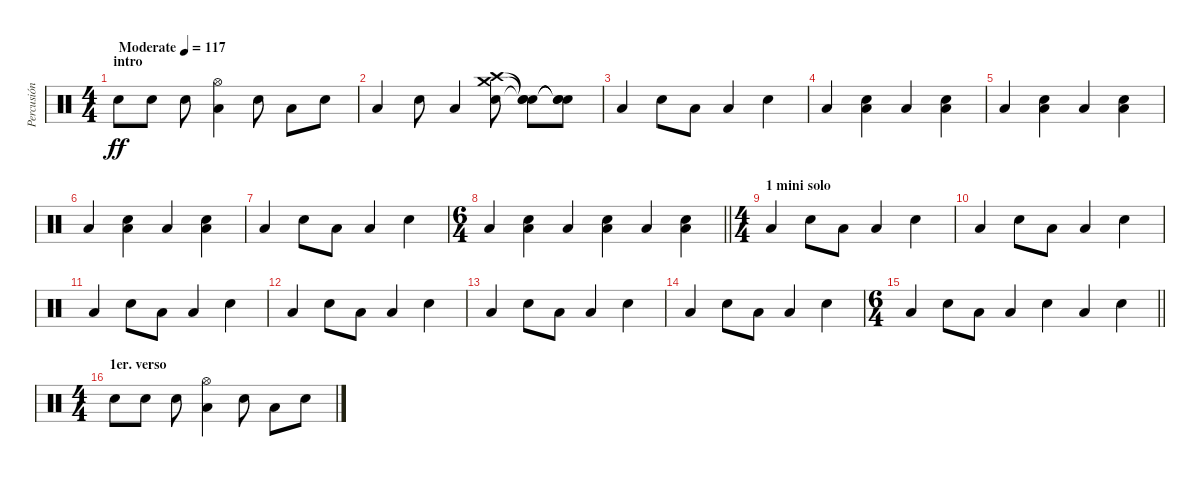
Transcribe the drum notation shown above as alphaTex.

\track ("Percusión" "Percusión") {instrument percussion}
\staff {score}
\articulation defaults
\ts (4 4)
\section ("" "intro")
\tempo (117 "Moderate")
\clef neutral
\ks c "Snare (hit) 2".8{dy ff} "Snare (hit) 2".8 "Snare (hit) 2".8
("Low Floor Tom (hit)" "Hi-Hat (open)").4 "Snare (hit) 2".8 "Low Floor Tom (hit)".8 "Snare (hit) 2".8 |
"Low Floor Tom (hit)".4 "Snare (hit) 2".8 "Low Floor Tom (hit)".4 ("Snare (hit) 2" "Crash high (hit)" "Crash medium (hit)").8 ("Snare (hit)"{t} "Snare (hit)"{t} "Snare (hit)"{t}).8 ("Snare (hit)"{t} "Snare (hit)"{t} "Snare (hit)"{t}).8 |
"Low Floor Tom (hit)".4 "Snare (hit) 2".8 "Low Floor Tom (hit)".8 "Low Floor Tom (hit)".4 "Snare (hit) 2".4 |
"Low Floor Tom (hit)".4 ("Snare (hit) 2" "Low Floor Tom (hit)").4 "Low Floor Tom (hit)".4 ("Snare (hit) 2" "Low Floor Tom (hit)").4 |
"Low Floor Tom (hit)".4 ("Snare (hit) 2" "Low Floor Tom (hit)").4 "Low Floor Tom (hit)".4 ("Snare (hit) 2" "Low Floor Tom (hit)").4 |
"Low Floor Tom (hit)".4 ("Snare (hit) 2" "Low Floor Tom (hit)").4 "Low Floor Tom (hit)".4 ("Snare (hit) 2" "Low Floor Tom (hit)").4 |
"Low Floor Tom (hit)".4 "Snare (hit) 2".8 "Low Floor Tom (hit)".8 "Low Floor Tom (hit)".4 "Snare (hit) 2".4 |
\ts (6 4)
\barLineRight lightlight "Low Floor Tom (hit)".4
("Snare (hit) 2" "Low Floor Tom (hit)").4 "Low Floor Tom (hit)".4 ("Snare (hit) 2" "Low Floor Tom (hit)").4 "Low Floor Tom (hit)".4 ("Snare (hit) 2" "Low Floor Tom (hit)").4 |
\ts (4 4)
\section ("" "1 mini solo")
"Low Floor Tom (hit)".4 "Snare (hit) 2".8 "Low Floor Tom (hit)".8 "Low Floor Tom (hit)".4 "Snare (hit) 2".4 |
"Low Floor Tom (hit)".4 "Snare (hit) 2".8 "Low Floor Tom (hit)".8 "Low Floor Tom (hit)".4 "Snare (hit) 2".4 |
"Low Floor Tom (hit)".4 "Snare (hit) 2".8 "Low Floor Tom (hit)".8 "Low Floor Tom (hit)".4 "Snare (hit) 2".4 |
"Low Floor Tom (hit)".4 "Snare (hit) 2".8 "Low Floor Tom (hit)".8 "Low Floor Tom (hit)".4 "Snare (hit) 2".4 |
"Low Floor Tom (hit)".4 "Snare (hit) 2".8 "Low Floor Tom (hit)".8 "Low Floor Tom (hit)".4 "Snare (hit) 2".4 |
"Low Floor Tom (hit)".4 "Snare (hit) 2".8 "Low Floor Tom (hit)".8 "Low Floor Tom (hit)".4 "Snare (hit) 2".4 |
\ts (6 4)
\barLineRight lightlight "Low Floor Tom (hit)".4 "Snare (hit) 2".8 "Low Floor Tom (hit)".8 "Low Floor Tom (hit)".4 "Snare (hit) 2".4 "Low Floor Tom (hit)".4 "Snare (hit) 2".4
|
\ts (4 4)
\section ("" "1er. verso")
"Snare (hit) 2".8 "Snare (hit) 2".8 "Snare (hit) 2".8 ("Low Floor Tom (hit)" "Hi-Hat (open)").4 "Snare (hit) 2".8 "Low Floor Tom (hit)".8 "Snare (hit) 2".8
